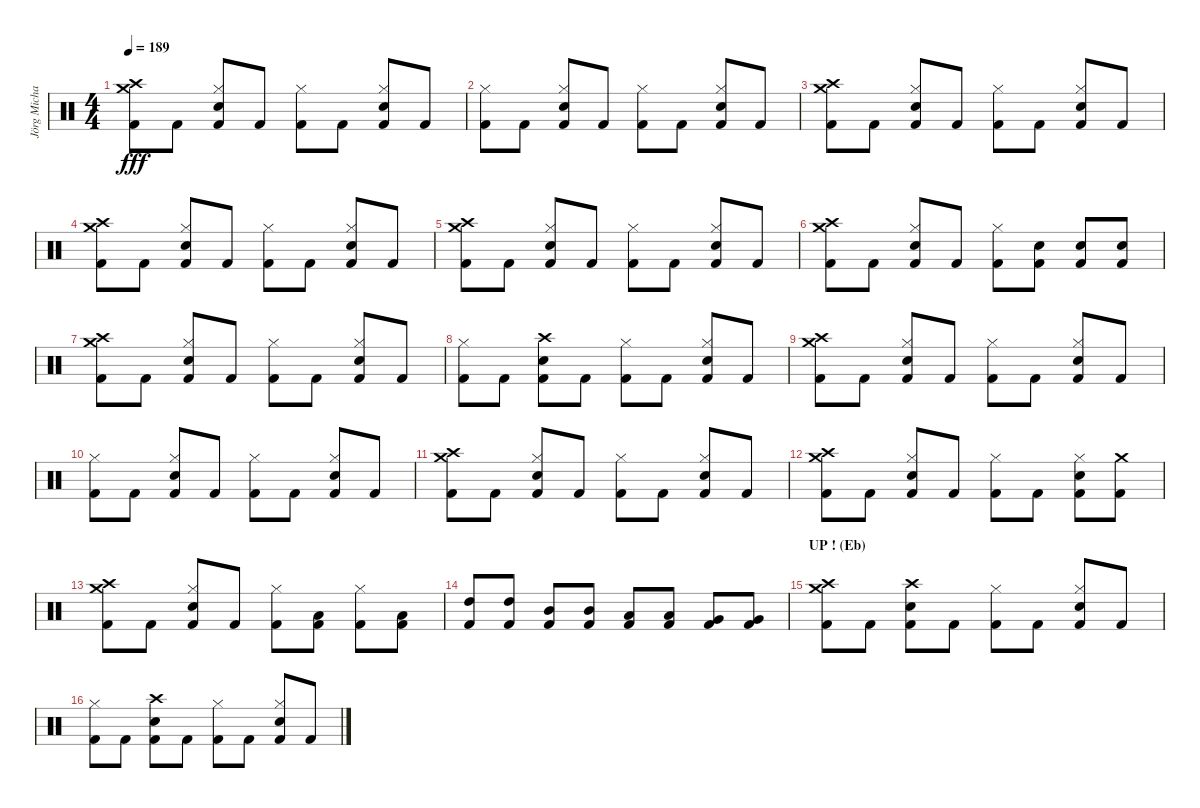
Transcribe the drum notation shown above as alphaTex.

\track ("Jörg Michael" "Jörg Micha") {instrument percussion}
\staff {score}
\articulation defaults
\ts (4 4)
\tempo 189
\clef neutral
\ks c
("Crash high (hit)" "Crash medium (hit)" "Kick (hit) 2").8{dy fff} "Kick (hit) 2".8 ("Hi-Hat (closed)" "Electric Snare (hit)" "Kick (hit) 2").8 "Kick (hit) 2".8 ("Hi-Hat (closed)" "Kick (hit) 2").8 "Kick (hit) 2".8 ("Hi-Hat (closed)" "Electric Snare (hit)" "Kick (hit) 2").8 "Kick (hit) 2".8 |
("Hi-Hat (closed)" "Kick (hit) 2").8 "Kick (hit) 2".8 ("Hi-Hat (closed)" "Electric Snare (hit)" "Kick (hit) 2").8 "Kick (hit) 2".8 ("Hi-Hat (closed)" "Kick (hit) 2").8 "Kick (hit) 2".8 ("Hi-Hat (closed)" "Electric Snare (hit)" "Kick (hit) 2").8 "Kick (hit) 2".8 |
("Crash high (hit)" "Crash medium (hit)" "Kick (hit) 2").8 "Kick (hit) 2".8 ("Hi-Hat (closed)" "Electric Snare (hit)" "Kick (hit) 2").8 "Kick (hit) 2".8 ("Hi-Hat (closed)" "Kick (hit) 2").8 "Kick (hit) 2".8 ("Hi-Hat (closed)" "Electric Snare (hit)" "Kick (hit) 2").8 "Kick (hit) 2".8 |
("Crash high (hit)" "Crash medium (hit)" "Kick (hit) 2").8 "Kick (hit) 2".8 ("Hi-Hat (closed)" "Electric Snare (hit)" "Kick (hit) 2").8 "Kick (hit) 2".8 ("Hi-Hat (closed)" "Kick (hit) 2").8 "Kick (hit) 2".8 ("Hi-Hat (closed)" "Electric Snare (hit)" "Kick (hit) 2").8 "Kick (hit) 2".8 |
("Crash high (hit)" "Crash medium (hit)" "Kick (hit) 2").8 "Kick (hit) 2".8 ("Hi-Hat (closed)" "Electric Snare (hit)" "Kick (hit) 2").8 "Kick (hit) 2".8 ("Hi-Hat (closed)" "Kick (hit) 2").8 "Kick (hit) 2".8 ("Hi-Hat (closed)" "Electric Snare (hit)" "Kick (hit) 2").8 "Kick (hit) 2".8 |
("Crash high (hit)" "Crash medium (hit)" "Kick (hit) 2").8 "Kick (hit) 2".8 ("Hi-Hat (closed)" "Electric Snare (hit)" "Kick (hit) 2").8 "Kick (hit) 2".8 ("Hi-Hat (closed)" "Kick (hit) 2").8 ("Electric Snare (hit)" "Kick (hit) 2").8 ("Electric Snare (hit)" "Kick (hit) 2").8 ("Electric Snare (hit)" "Kick (hit) 2").8 |
("Crash high (hit)" "Crash medium (hit)" "Kick (hit) 2").8 "Kick (hit) 2".8 ("Hi-Hat (closed)" "Electric Snare (hit)" "Kick (hit) 2").8 "Kick (hit) 2".8 ("Hi-Hat (closed)" "Kick (hit) 2").8 "Kick (hit) 2".8 ("Hi-Hat (closed)" "Electric Snare (hit)" "Kick (hit) 2").8 "Kick (hit) 2".8 |
("Hi-Hat (closed)" "Kick (hit) 2").8 "Kick (hit) 2".8 ("Crash high (hit)" "Electric Snare (hit)" "Kick (hit) 2").8 "Kick (hit) 2".8 ("Hi-Hat (closed)" "Kick (hit) 2").8 "Kick (hit) 2".8 ("Hi-Hat (closed)" "Electric Snare (hit)" "Kick (hit) 2").8 "Kick (hit) 2".8 |
("Crash high (hit)" "Crash medium (hit)" "Kick (hit) 2").8 "Kick (hit) 2".8 ("Hi-Hat (closed)" "Electric Snare (hit)" "Kick (hit) 2").8 "Kick (hit) 2".8 ("Hi-Hat (closed)" "Kick (hit) 2").8 "Kick (hit) 2".8 ("Hi-Hat (closed)" "Electric Snare (hit)" "Kick (hit) 2").8 "Kick (hit) 2".8 |
("Hi-Hat (closed)" "Kick (hit) 2").8 "Kick (hit) 2".8 ("Hi-Hat (closed)" "Electric Snare (hit)" "Kick (hit) 2").8 "Kick (hit) 2".8 ("Hi-Hat (closed)" "Kick (hit) 2").8 "Kick (hit) 2".8 ("Hi-Hat (closed)" "Electric Snare (hit)" "Kick (hit) 2").8 "Kick (hit) 2".8 |
("Crash high (hit)" "Crash medium (hit)" "Kick (hit) 2").8 "Kick (hit) 2".8 ("Hi-Hat (closed)" "Electric Snare (hit)" "Kick (hit) 2").8 "Kick (hit) 2".8 ("Hi-Hat (closed)" "Kick (hit) 2").8 "Kick (hit) 2".8 ("Hi-Hat (closed)" "Electric Snare (hit)" "Kick (hit) 2").8 "Kick (hit) 2".8 |
("Crash high (hit)" "Crash medium (hit)" "Kick (hit) 2").8 "Kick (hit) 2".8 ("Hi-Hat (closed)" "Electric Snare (hit)" "Kick (hit) 2").8 "Kick (hit) 2".8 ("Hi-Hat (closed)" "Kick (hit) 2").8 "Kick (hit) 2".8 ("Hi-Hat (closed)" "Electric Snare (hit)" "Kick (hit) 2").8 ("Crash medium (hit)" "Kick (hit) 2").8 |
("Crash high (hit)" "Crash medium (hit)" "Kick (hit) 2").8 "Kick (hit) 2".8 ("Hi-Hat (closed)" "Electric Snare (hit)" "Kick (hit) 2").8 "Kick (hit) 2".8 ("Hi-Hat (closed)" "Kick (hit) 2").8 ("Low Tom (hit)" "Kick (hit) 2").8 ("Hi-Hat (closed)" "Kick (hit) 2").8 ("Low Tom (hit)" "Kick (hit) 2").8 |
("High Tom (hit)" "Kick (hit) 2").8 ("High Tom (hit)" "Kick (hit) 2").8 ("Mid Tom (hit)" "Kick (hit) 2").8 ("Mid Tom (hit)" "Kick (hit) 2").8 ("Low Tom (hit)" "Kick (hit) 2").8 ("Low Tom (hit)" "Kick (hit) 2").8 ("Very Low Tom (hit)" "Kick (hit) 2").8 ("Very Low Tom (hit)" "Kick (hit) 2").8 |
\section ("" "UP ! (Eb)")
("Crash medium (hit)" "Crash high (hit)" "Kick (hit) 2").8 "Kick (hit) 2".8 ("Crash high (hit)" "Electric Snare (hit)" "Kick (hit) 2").8 "Kick (hit) 2".8 ("Hi-Hat (closed)" "Kick (hit) 2").8 "Kick (hit) 2".8 ("Hi-Hat (closed)" "Electric Snare (hit)" "Kick (hit) 2").8 "Kick (hit) 2".8 |
("Hi-Hat (closed)" "Kick (hit) 2").8 "Kick (hit) 2".8 ("Crash high (hit)" "Electric Snare (hit)" "Kick (hit) 2").8 "Kick (hit) 2".8 ("Hi-Hat (closed)" "Kick (hit) 2").8 "Kick (hit) 2".8 ("Hi-Hat (closed)" "Electric Snare (hit)" "Kick (hit) 2").8 "Kick (hit) 2".8
